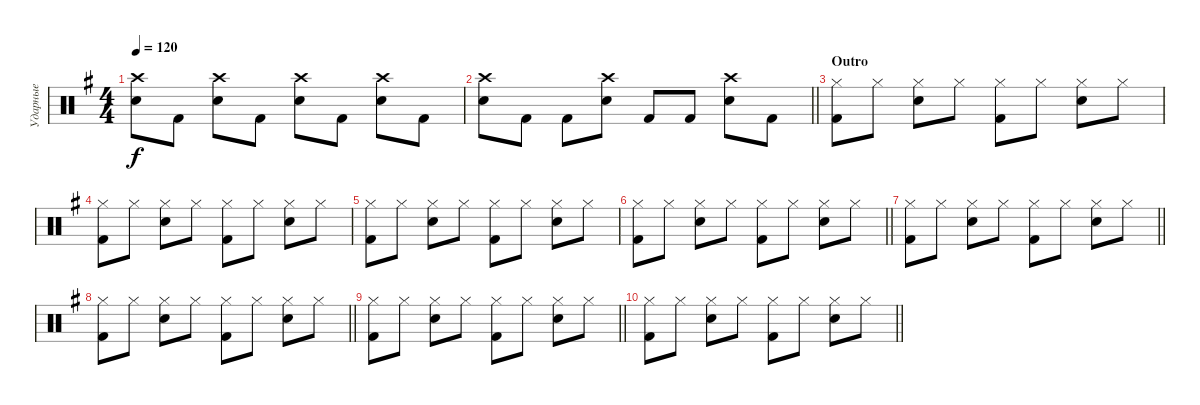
\track ("Ударные" "Ударные") {instrument percussion}
\staff {score}
\articulation defaults
\ts (4 4)
\tempo 120
\clef neutral
\ks g
("Snare (hit) 2" "Crash high (hit)").8{dy f} "Kick (hit) 2".8 ("Snare (hit) 2" "Crash high (hit)").8 "Kick (hit) 2".8 ("Snare (hit) 2" "Crash high (hit)").8 "Kick (hit) 2".8 ("Snare (hit) 2" "Crash high (hit)").8 "Kick (hit) 2".8 |
\barLineRight lightlight
("Snare (hit) 2" "Crash high (hit)").8 "Kick (hit) 2".8 "Kick (hit) 2".8 ("Snare (hit) 2" "Crash high (hit)").8 "Kick (hit) 2".8 "Kick (hit) 2".8 ("Snare (hit) 2" "Crash high (hit)").8 "Kick (hit) 2".8 |
\section ("" "Outro")
("Kick (hit) 2" "Hi-Hat (closed)").8 "Hi-Hat (closed)".8 ("Electric Snare (hit)" "Hi-Hat (closed)").8 "Hi-Hat (closed)".8 ("Kick (hit) 2" "Hi-Hat (closed)").8 "Hi-Hat (closed)".8 ("Electric Snare (hit)" "Hi-Hat (closed)").8 "Hi-Hat (closed)".8 |
("Kick (hit) 2" "Hi-Hat (closed)").8 "Hi-Hat (closed)".8 ("Electric Snare (hit)" "Hi-Hat (closed)").8 "Hi-Hat (closed)".8 ("Kick (hit) 2" "Hi-Hat (closed)").8 "Hi-Hat (closed)".8 ("Electric Snare (hit)" "Hi-Hat (closed)").8 "Hi-Hat (closed)".8 |
("Kick (hit) 2" "Hi-Hat (closed)").8 "Hi-Hat (closed)".8 ("Electric Snare (hit)" "Hi-Hat (closed)").8 "Hi-Hat (closed)".8 ("Kick (hit) 2" "Hi-Hat (closed)").8 "Hi-Hat (closed)".8 ("Electric Snare (hit)" "Hi-Hat (closed)").8 "Hi-Hat (closed)".8 |
\barLineRight lightlight
("Kick (hit) 2" "Hi-Hat (closed)").8 "Hi-Hat (closed)".8 ("Electric Snare (hit)" "Hi-Hat (closed)").8 "Hi-Hat (closed)".8 ("Kick (hit) 2" "Hi-Hat (closed)").8 "Hi-Hat (closed)".8 ("Electric Snare (hit)" "Hi-Hat (closed)").8 "Hi-Hat (closed)".8 |
\barLineRight lightlight
("Kick (hit) 2" "Hi-Hat (closed)").8 "Hi-Hat (closed)".8 ("Electric Snare (hit)" "Hi-Hat (closed)").8 "Hi-Hat (closed)".8 ("Kick (hit) 2" "Hi-Hat (closed)").8 "Hi-Hat (closed)".8 ("Electric Snare (hit)" "Hi-Hat (closed)").8 "Hi-Hat (closed)".8 |
\barLineRight lightlight
("Kick (hit) 2" "Hi-Hat (closed)").8 "Hi-Hat (closed)".8 ("Electric Snare (hit)" "Hi-Hat (closed)").8 "Hi-Hat (closed)".8 ("Kick (hit) 2" "Hi-Hat (closed)").8 "Hi-Hat (closed)".8 ("Electric Snare (hit)" "Hi-Hat (closed)").8 "Hi-Hat (closed)".8 |
\barLineRight lightlight
("Kick (hit) 2" "Hi-Hat (closed)").8 "Hi-Hat (closed)".8 ("Electric Snare (hit)" "Hi-Hat (closed)").8 "Hi-Hat (closed)".8 ("Kick (hit) 2" "Hi-Hat (closed)").8 "Hi-Hat (closed)".8 ("Electric Snare (hit)" "Hi-Hat (closed)").8 "Hi-Hat (closed)".8 |
\barLineRight lightlight
("Kick (hit) 2" "Hi-Hat (closed)").8 "Hi-Hat (closed)".8 ("Electric Snare (hit)" "Hi-Hat (closed)").8 "Hi-Hat (closed)".8 ("Kick (hit) 2" "Hi-Hat (closed)").8 "Hi-Hat (closed)".8 ("Electric Snare (hit)" "Hi-Hat (closed)").8 "Hi-Hat (closed)".8
